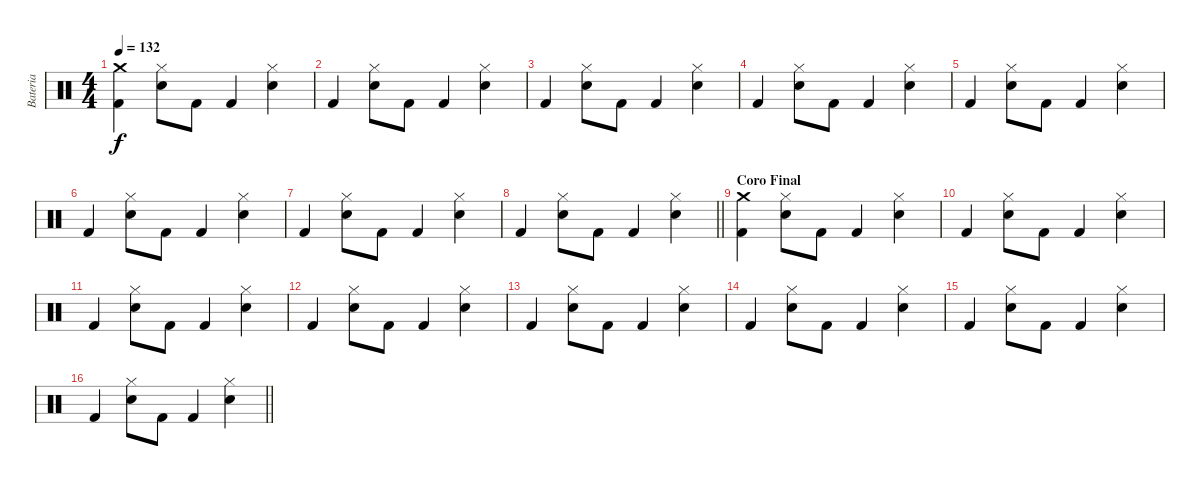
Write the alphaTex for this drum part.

\track ("Bateria" "Bateria") {instrument percussion}
\staff {score}
\articulation defaults
\ts (4 4)
\section ("" "")
\tempo 132
\clef neutral
\ks c
("Kick (hit) 2" "Crash medium (hit)").4{dy f} ("Electric Snare (hit)" "Hi-Hat (closed)").8 "Kick (hit) 2".8 "Kick (hit) 2".4 ("Electric Snare (hit)" "Hi-Hat (closed)").4 |
"Kick (hit) 2".4 ("Electric Snare (hit)" "Hi-Hat (closed)").8 "Kick (hit) 2".8 "Kick (hit) 2".4 ("Electric Snare (hit)" "Hi-Hat (closed)").4 |
"Kick (hit) 2".4 ("Electric Snare (hit)" "Hi-Hat (closed)").8 "Kick (hit) 2".8 "Kick (hit) 2".4 ("Electric Snare (hit)" "Hi-Hat (closed)").4 |
"Kick (hit) 2".4 ("Electric Snare (hit)" "Hi-Hat (closed)").8 "Kick (hit) 2".8 "Kick (hit) 2".4 ("Electric Snare (hit)" "Hi-Hat (closed)").4 |
"Kick (hit) 2".4 ("Electric Snare (hit)" "Hi-Hat (closed)").8 "Kick (hit) 2".8 "Kick (hit) 2".4 ("Electric Snare (hit)" "Hi-Hat (closed)").4 |
"Kick (hit) 2".4 ("Electric Snare (hit)" "Hi-Hat (closed)").8 "Kick (hit) 2".8 "Kick (hit) 2".4 ("Electric Snare (hit)" "Hi-Hat (closed)").4 |
"Kick (hit) 2".4 ("Electric Snare (hit)" "Hi-Hat (closed)").8 "Kick (hit) 2".8 "Kick (hit) 2".4 ("Electric Snare (hit)" "Hi-Hat (closed)").4 |
\barLineRight lightlight "Kick (hit) 2".4
("Electric Snare (hit)" "Hi-Hat (closed)").8 "Kick (hit) 2".8 "Kick (hit) 2".4 ("Electric Snare (hit)" "Hi-Hat (closed)").4 |
\section ("" "Coro Final")
("Kick (hit) 2" "Crash medium (hit)").4 ("Electric Snare (hit)" "Hi-Hat (closed)").8 "Kick (hit) 2".8 "Kick (hit) 2".4 ("Electric Snare (hit)" "Hi-Hat (closed)").4 |
"Kick (hit) 2".4 ("Electric Snare (hit)" "Hi-Hat (closed)").8 "Kick (hit) 2".8 "Kick (hit) 2".4 ("Electric Snare (hit)" "Hi-Hat (closed)").4 |
"Kick (hit) 2".4 ("Electric Snare (hit)" "Hi-Hat (closed)").8 "Kick (hit) 2".8 "Kick (hit) 2".4 ("Electric Snare (hit)" "Hi-Hat (closed)").4 |
"Kick (hit) 2".4 ("Electric Snare (hit)" "Hi-Hat (closed)").8 "Kick (hit) 2".8 "Kick (hit) 2".4 ("Electric Snare (hit)" "Hi-Hat (closed)").4 |
"Kick (hit) 2".4 ("Electric Snare (hit)" "Hi-Hat (closed)").8 "Kick (hit) 2".8 "Kick (hit) 2".4 ("Electric Snare (hit)" "Hi-Hat (closed)").4 |
"Kick (hit) 2".4 ("Electric Snare (hit)" "Hi-Hat (closed)").8 "Kick (hit) 2".8 "Kick (hit) 2".4 ("Electric Snare (hit)" "Hi-Hat (closed)").4 |
"Kick (hit) 2".4 ("Electric Snare (hit)" "Hi-Hat (closed)").8 "Kick (hit) 2".8 "Kick (hit) 2".4 ("Electric Snare (hit)" "Hi-Hat (closed)").4 |
\barLineRight lightlight "Kick (hit) 2".4
("Electric Snare (hit)" "Hi-Hat (closed)").8 "Kick (hit) 2".8 "Kick (hit) 2".4 ("Electric Snare (hit)" "Hi-Hat (closed)").4
